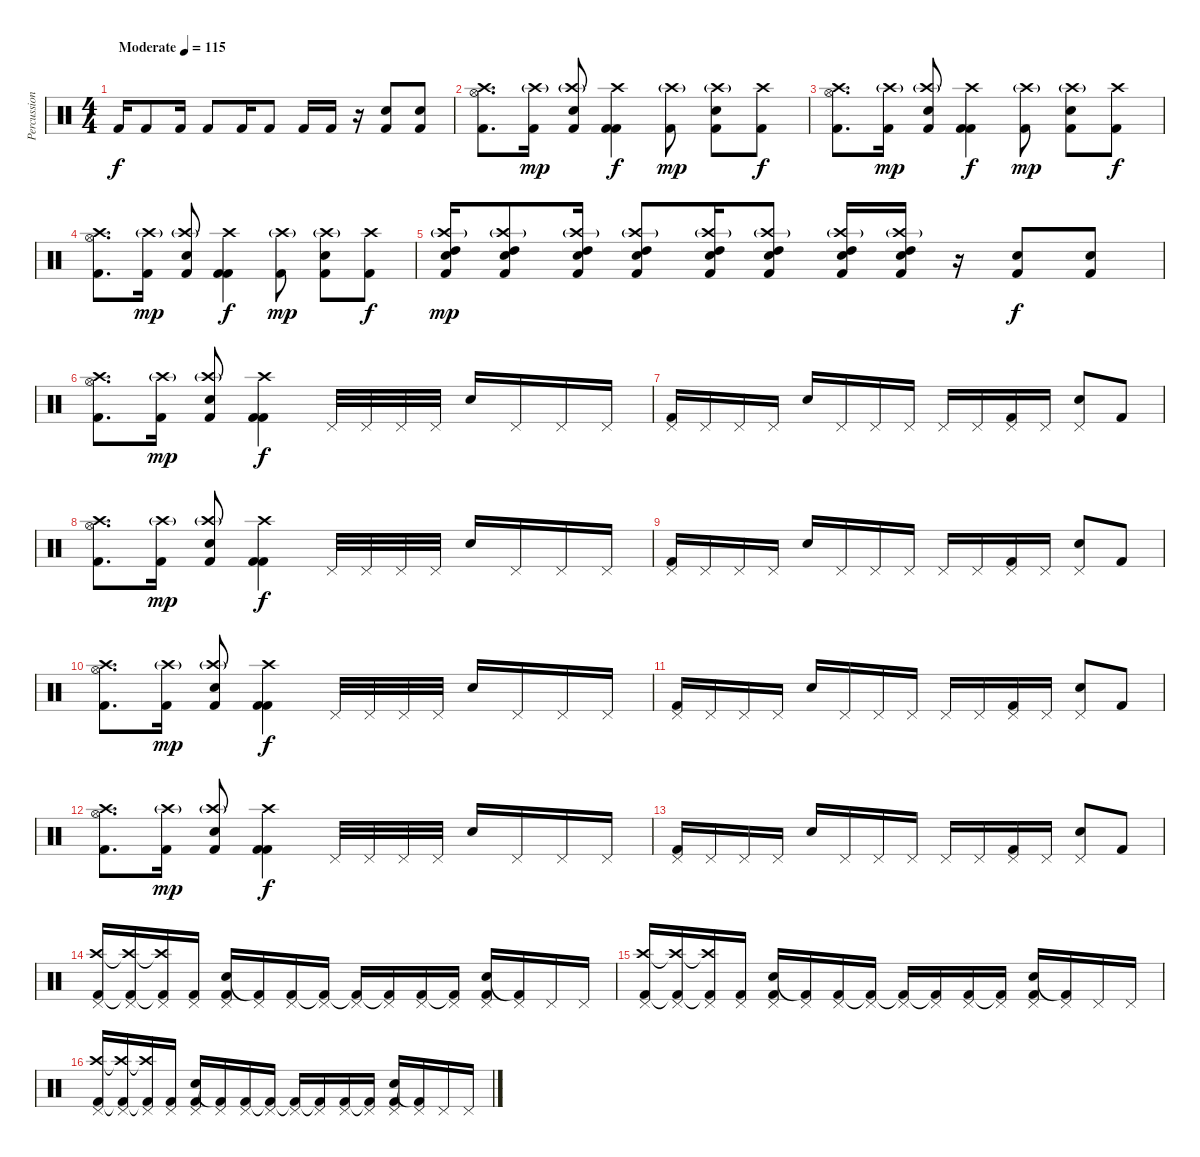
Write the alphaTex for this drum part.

\track ("Percussion" "Percussion") {instrument percussion}
\staff {score}
\articulation defaults
\ts (4 4)
\tempo (115 "Moderate")
\clef neutral
\ks c "Kick (hit) 2".16{dy f} "Kick (hit) 2".8 "Kick (hit) 2".16 "Kick (hit) 2".8 "Kick (hit) 2".16 "Kick (hit) 2".8 "Kick (hit) 2".16 "Kick (hit) 2".16
r.16 ("Hand Clap (hit)" "Kick (hit) 2").8 ("Hand Clap (hit)" "Kick (hit) 2").8 |
("Crash high (hit)" "Hi-Hat (open)" "Kick (hit) 2").8{d} ("Crash high (hit)"{g} "Kick (hit) 2").16{dy mp} ("Crash high (hit)"{g} "Snare (hit) 2" "Kick (hit) 2").8 ("Crash high (hit)" "Kick (hit) 2" "Kick (hit) 2").4{dy f} ("Crash high (hit)"{g} "Kick (hit) 2").8{dy mp} ("Crash high (hit)"{g} "Snare (hit) 2" "Kick (hit) 2").8 ("Crash high (hit)" "Kick (hit) 2").8{dy f} |
("Crash high (hit)" "Hi-Hat (open)" "Kick (hit) 2").8{d} ("Crash high (hit)"{g} "Kick (hit) 2").16{dy mp} ("Crash high (hit)"{g} "Snare (hit) 2" "Kick (hit) 2").8 ("Crash high (hit)" "Kick (hit) 2" "Kick (hit) 2").4{dy f} ("Crash high (hit)"{g} "Kick (hit) 2").8{dy mp} ("Crash high (hit)"{g} "Snare (hit) 2" "Kick (hit) 2").8 ("Crash high (hit)" "Kick (hit) 2").8{dy f} |
("Crash high (hit)" "Hi-Hat (open)" "Kick (hit) 2").8{d} ("Crash high (hit)"{g} "Kick (hit) 2").16{dy mp} ("Crash high (hit)"{g} "Snare (hit) 2" "Kick (hit) 2").8 ("Crash high (hit)" "Kick (hit) 2" "Kick (hit) 2").4{dy f} ("Crash high (hit)"{g} "Kick (hit) 2").8{dy mp} ("Crash high (hit)"{g} "Snare (hit) 2" "Kick (hit) 2").8 ("Crash high (hit)" "Kick (hit) 2").8{dy f} |
("Crash high (hit)"{g} "High Tom (hit)" "Snare (hit) 2" "Kick (hit) 2").16{dy mp} ("Crash high (hit)"{g} "High Tom (hit)" "Snare (hit) 2" "Kick (hit) 2").8 ("Crash high (hit)"{g} "High Tom (hit)" "Snare (hit) 2" "Kick (hit) 2").16 ("Crash high (hit)"{g} "High Tom (hit)" "Snare (hit) 2" "Kick (hit) 2").8 ("Crash high (hit)"{g} "High Tom (hit)" "Snare (hit) 2" "Kick (hit) 2").16 ("Crash high (hit)"{g} "High Tom (hit)" "Snare (hit) 2" "Kick (hit) 2").8 ("Crash high (hit)"{g} "High Tom (hit)" "Snare (hit) 2" "Kick (hit) 2").16 ("Crash high (hit)"{g} "High Tom (hit)" "Snare (hit) 2" "Kick (hit) 2").16 r.16 ("Snare (hit) 2" "Kick (hit) 2").8{dy f} ("Snare (hit) 2" "Kick (hit) 2").8 |
("Crash high (hit)" "Hi-Hat (open)" "Kick (hit) 2").8{d} ("Crash high (hit)"{g} "Kick (hit) 2").16{dy mp} ("Crash high (hit)"{g} "Snare (hit) 2" "Kick (hit) 2").8 ("Crash high (hit)" "Kick (hit) 2" "Kick (hit) 2").4{dy f} "Pedal Hi-Hat (hit)".32 "Pedal Hi-Hat (hit)".32 "Pedal Hi-Hat (hit)".32 "Pedal Hi-Hat (hit)".32 "Snare (hit) 2".16 "Pedal Hi-Hat (hit)".16 "Pedal Hi-Hat (hit)".16 "Pedal Hi-Hat (hit)".16 |
("Pedal Hi-Hat (hit)" "Kick (hit) 2").16 "Pedal Hi-Hat (hit)".16 "Pedal Hi-Hat (hit)".16 "Pedal Hi-Hat (hit)".16 "Snare (hit) 2".16 "Pedal Hi-Hat (hit)".16 "Pedal Hi-Hat (hit)".16 "Pedal Hi-Hat (hit)".16 "Pedal Hi-Hat (hit)".16 "Pedal Hi-Hat (hit)".16 ("Pedal Hi-Hat (hit)" "Kick (hit) 2").16 "Pedal Hi-Hat (hit)".16 ("Pedal Hi-Hat (hit)" "Snare (hit) 2").8 "Kick (hit) 2".8 |
("Crash high (hit)" "Hi-Hat (open)" "Kick (hit) 2").8{d} ("Crash high (hit)"{g} "Kick (hit) 2").16{dy mp} ("Crash high (hit)"{g} "Snare (hit) 2" "Kick (hit) 2").8 ("Crash high (hit)" "Kick (hit) 2" "Kick (hit) 2").4{dy f} "Pedal Hi-Hat (hit)".32 "Pedal Hi-Hat (hit)".32 "Pedal Hi-Hat (hit)".32 "Pedal Hi-Hat (hit)".32 "Snare (hit) 2".16 "Pedal Hi-Hat (hit)".16 "Pedal Hi-Hat (hit)".16 "Pedal Hi-Hat (hit)".16 |
("Pedal Hi-Hat (hit)" "Kick (hit) 2").16 "Pedal Hi-Hat (hit)".16 "Pedal Hi-Hat (hit)".16 "Pedal Hi-Hat (hit)".16 "Snare (hit) 2".16 "Pedal Hi-Hat (hit)".16 "Pedal Hi-Hat (hit)".16 "Pedal Hi-Hat (hit)".16 "Pedal Hi-Hat (hit)".16 "Pedal Hi-Hat (hit)".16 ("Pedal Hi-Hat (hit)" "Kick (hit) 2").16 "Pedal Hi-Hat (hit)".16 ("Pedal Hi-Hat (hit)" "Snare (hit) 2").8 "Kick (hit) 2".8 |
("Crash high (hit)" "Hi-Hat (open)" "Kick (hit) 2").8{d} ("Crash high (hit)"{g} "Kick (hit) 2").16{dy mp} ("Crash high (hit)"{g} "Snare (hit) 2" "Kick (hit) 2").8 ("Crash high (hit)" "Kick (hit) 2" "Kick (hit) 2").4{dy f} "Pedal Hi-Hat (hit)".32 "Pedal Hi-Hat (hit)".32 "Pedal Hi-Hat (hit)".32 "Pedal Hi-Hat (hit)".32 "Snare (hit) 2".16 "Pedal Hi-Hat (hit)".16 "Pedal Hi-Hat (hit)".16 "Pedal Hi-Hat (hit)".16 |
("Pedal Hi-Hat (hit)" "Kick (hit) 2").16 "Pedal Hi-Hat (hit)".16 "Pedal Hi-Hat (hit)".16 "Pedal Hi-Hat (hit)".16 "Snare (hit) 2".16 "Pedal Hi-Hat (hit)".16 "Pedal Hi-Hat (hit)".16 "Pedal Hi-Hat (hit)".16 "Pedal Hi-Hat (hit)".16 "Pedal Hi-Hat (hit)".16 ("Pedal Hi-Hat (hit)" "Kick (hit) 2").16 "Pedal Hi-Hat (hit)".16 ("Pedal Hi-Hat (hit)" "Snare (hit) 2").8 "Kick (hit) 2".8 |
("Crash high (hit)" "Hi-Hat (open)" "Kick (hit) 2").8{d} ("Crash high (hit)"{g} "Kick (hit) 2").16{dy mp} ("Crash high (hit)"{g} "Snare (hit) 2" "Kick (hit) 2").8 ("Crash high (hit)" "Kick (hit) 2" "Kick (hit) 2").4{dy f} "Pedal Hi-Hat (hit)".32 "Pedal Hi-Hat (hit)".32 "Pedal Hi-Hat (hit)".32 "Pedal Hi-Hat (hit)".32 "Snare (hit) 2".16 "Pedal Hi-Hat (hit)".16 "Pedal Hi-Hat (hit)".16 "Pedal Hi-Hat (hit)".16 |
("Pedal Hi-Hat (hit)" "Kick (hit) 2").16 "Pedal Hi-Hat (hit)".16 "Pedal Hi-Hat (hit)".16 "Pedal Hi-Hat (hit)".16 "Snare (hit) 2".16 "Pedal Hi-Hat (hit)".16 "Pedal Hi-Hat (hit)".16 "Pedal Hi-Hat (hit)".16 "Pedal Hi-Hat (hit)".16 "Pedal Hi-Hat (hit)".16 ("Pedal Hi-Hat (hit)" "Kick (hit) 2").16 "Pedal Hi-Hat (hit)".16 ("Pedal Hi-Hat (hit)" "Snare (hit) 2").8 "Kick (hit) 2".8 |
("Crash high (hit)" "Pedal Hi-Hat (hit)" "Kick (hit) 2").16 ("Crash high (hit)"{t} "Pedal Hi-Hat (hit)" "Kick (hit) 2"{t}).16 ("Crash high (hit)"{t} "Pedal Hi-Hat (hit)" "Kick (hit) 2"{t}).16 ("Pedal Hi-Hat (hit)" "Kick (hit) 2").16 ("Pedal Hi-Hat (hit)" "Snare (hit) 2" "Kick (hit) 2").16 ("Pedal Hi-Hat (hit)" "Kick (hit) 2"{t}).16 ("Pedal Hi-Hat (hit)" "Kick (hit) 2").16 ("Pedal Hi-Hat (hit)" "Kick (hit) 2"{t}).16 ("Pedal Hi-Hat (hit)" "Kick (hit) 2"{t}).16 ("Pedal Hi-Hat (hit)" "Kick (hit) 2"{t}).16 ("Pedal Hi-Hat (hit)" "Kick (hit) 2").16 ("Pedal Hi-Hat (hit)" "Kick (hit) 2"{t}).16 ("Pedal Hi-Hat (hit)" "Snare (hit) 2" "Kick (hit) 2").16 ("Pedal Hi-Hat (hit)" "Kick (hit) 2"{t}).16 "Pedal Hi-Hat (hit)".16 "Pedal Hi-Hat (hit)".16 |
("Crash high (hit)" "Pedal Hi-Hat (hit)" "Kick (hit) 2").16 ("Crash high (hit)"{t} "Pedal Hi-Hat (hit)" "Kick (hit) 2"{t}).16 ("Crash high (hit)"{t} "Pedal Hi-Hat (hit)" "Kick (hit) 2"{t}).16 ("Pedal Hi-Hat (hit)" "Kick (hit) 2").16 ("Pedal Hi-Hat (hit)" "Snare (hit) 2" "Kick (hit) 2").16 ("Pedal Hi-Hat (hit)" "Kick (hit) 2"{t}).16 ("Pedal Hi-Hat (hit)" "Kick (hit) 2").16 ("Pedal Hi-Hat (hit)" "Kick (hit) 2"{t}).16 ("Pedal Hi-Hat (hit)" "Kick (hit) 2"{t}).16 ("Pedal Hi-Hat (hit)" "Kick (hit) 2"{t}).16 ("Pedal Hi-Hat (hit)" "Kick (hit) 2").16 ("Pedal Hi-Hat (hit)" "Kick (hit) 2"{t}).16 ("Pedal Hi-Hat (hit)" "Snare (hit) 2" "Kick (hit) 2").16 ("Pedal Hi-Hat (hit)" "Kick (hit) 2"{t}).16 "Pedal Hi-Hat (hit)".16 "Pedal Hi-Hat (hit)".16 |
("Crash high (hit)" "Pedal Hi-Hat (hit)" "Kick (hit) 2").16 ("Crash high (hit)"{t} "Pedal Hi-Hat (hit)" "Kick (hit) 2"{t}).16 ("Crash high (hit)"{t} "Pedal Hi-Hat (hit)" "Kick (hit) 2"{t}).16 ("Pedal Hi-Hat (hit)" "Kick (hit) 2").16 ("Pedal Hi-Hat (hit)" "Snare (hit) 2" "Kick (hit) 2").16 ("Pedal Hi-Hat (hit)" "Kick (hit) 2"{t}).16 ("Pedal Hi-Hat (hit)" "Kick (hit) 2").16 ("Pedal Hi-Hat (hit)" "Kick (hit) 2"{t}).16 ("Pedal Hi-Hat (hit)" "Kick (hit) 2"{t}).16 ("Pedal Hi-Hat (hit)" "Kick (hit) 2"{t}).16 ("Pedal Hi-Hat (hit)" "Kick (hit) 2").16 ("Pedal Hi-Hat (hit)" "Kick (hit) 2"{t}).16 ("Pedal Hi-Hat (hit)" "Snare (hit) 2" "Kick (hit) 2").16 ("Pedal Hi-Hat (hit)" "Kick (hit) 2"{t}).16 "Pedal Hi-Hat (hit)".16 "Pedal Hi-Hat (hit)".16
